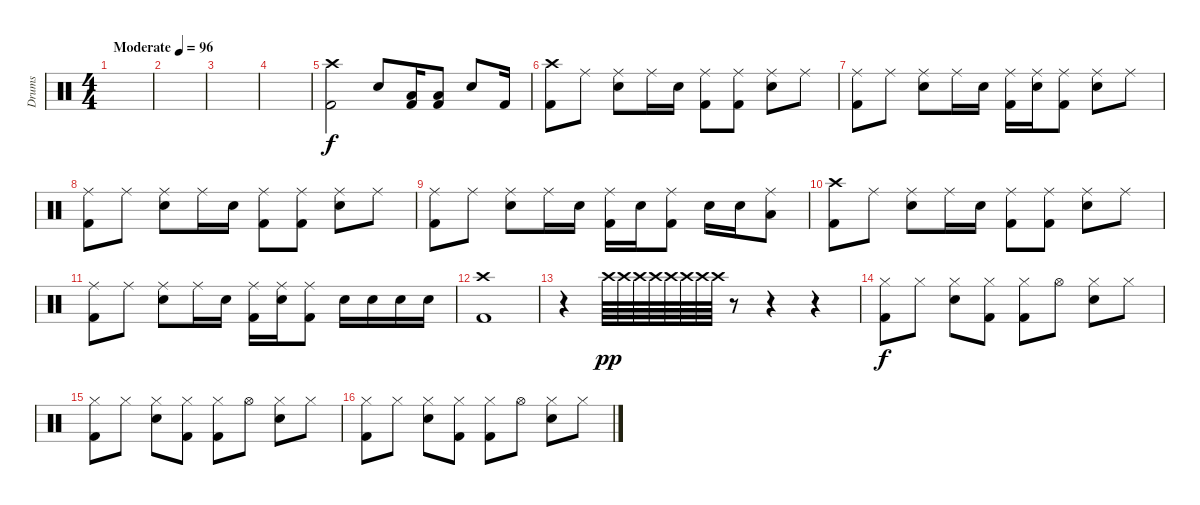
\track ("Drums" "Drums") {instrument percussion}
\staff {score}
\articulation defaults
\ts (4 4)
\tempo (96 "Moderate")
\clef neutral
\ks c
|
|
|
|
("Crash high (hit)" "Kick (hit) 2").2 "Electric Snare (hit)".8 ("Low Floor Tom (hit)" "Kick (hit) 2").16 ("Low Floor Tom (hit)" "Kick (hit) 2").8 "Electric Snare (hit)".8 "Kick (hit) 2".16 |
("Crash high (hit)" "Kick (hit) 2").8 "Ride (middle)".8 ("Ride (middle)" "Electric Snare (hit)").8 "Ride (middle)".16 "Electric Snare (hit)".16 ("Ride (middle)" "Kick (hit) 2").8 ("Ride (middle)" "Kick (hit) 2").8 ("Ride (middle)" "Electric Snare (hit)").8 "Ride (middle)".8 |
("Ride (middle)" "Kick (hit) 2").8 "Ride (middle)".8 ("Ride (middle)" "Electric Snare (hit)").8 "Ride (middle)".16 "Electric Snare (hit)".16 ("Ride (middle)" "Kick (hit) 2").16 ("Ride (middle)" "Electric Snare (hit)").16 ("Ride (middle)" "Kick (hit) 2").8 ("Ride (middle)" "Electric Snare (hit)").8 "Ride (middle)".8 |
("Ride (middle)" "Kick (hit) 2").8 "Ride (middle)".8 ("Ride (middle)" "Electric Snare (hit)").8 "Ride (middle)".16 "Electric Snare (hit)".16 ("Ride (middle)" "Kick (hit) 2").8 ("Ride (middle)" "Kick (hit) 2").8 ("Ride (middle)" "Electric Snare (hit)").8 "Ride (middle)".8 |
("Ride (middle)" "Kick (hit) 2").8 "Ride (middle)".8 ("Ride (middle)" "Electric Snare (hit)").8 "Ride (middle)".16 "Electric Snare (hit)".16 ("Ride (middle)" "Kick (hit) 2").16 "Electric Snare (hit)".16 ("Ride (middle)" "Kick (hit) 2").8 "Electric Snare (hit)".16 "Electric Snare (hit)".16 ("Ride (middle)" "Low Floor Tom (hit)").8 |
("Crash high (hit)" "Kick (hit) 2").8 "Ride (middle)".8 ("Ride (middle)" "Electric Snare (hit)").8 "Ride (middle)".16 "Electric Snare (hit)".16 ("Ride (middle)" "Kick (hit) 2").8 ("Ride (middle)" "Kick (hit) 2").8 ("Ride (middle)" "Electric Snare (hit)").8 "Ride (middle)".8 |
("Ride (middle)" "Kick (hit) 2").8 "Ride (middle)".8 ("Ride (middle)" "Electric Snare (hit)").8 "Ride (middle)".16 "Electric Snare (hit)".16 ("Ride (middle)" "Kick (hit) 2").16 ("Ride (middle)" "Electric Snare (hit)").16 ("Ride (middle)" "Kick (hit) 2").8 "Electric Snare (hit)".16 "Electric Snare (hit)".16 "Electric Snare (hit)".16 "Electric Snare (hit)".16 |
("Crash high (hit)" "Kick (hit) 2").1 |
r.4 "Crash high (hit)".64{dy pp} "Crash high (hit)".64 "Crash high (hit)".64 "Crash high (hit)".64 "Crash high (hit)".64 "Crash high (hit)".64 "Crash high (hit)".64 "Crash high (hit)".64 r.8 r.4 r.4 |
("Hi-Hat (closed)" "Kick (hit) 2").8{dy f} "Hi-Hat (closed)".8 ("Hi-Hat (closed)" "Electric Snare (hit)").8 ("Hi-Hat (closed)" "Kick (hit) 2").8 ("Hi-Hat (closed)" "Kick (hit) 2").8 "Hi-Hat (open)".8 ("Hi-Hat (closed)" "Electric Snare (hit)").8 "Hi-Hat (closed)".8 |
("Hi-Hat (closed)" "Kick (hit) 2").8 "Hi-Hat (closed)".8 ("Hi-Hat (closed)" "Electric Snare (hit)").8 ("Hi-Hat (closed)" "Kick (hit) 2").8 ("Hi-Hat (closed)" "Kick (hit) 2").8 "Hi-Hat (open)".8 ("Hi-Hat (closed)" "Electric Snare (hit)").8 "Hi-Hat (closed)".8 |
("Hi-Hat (closed)" "Kick (hit) 2").8 "Hi-Hat (closed)".8 ("Hi-Hat (closed)" "Electric Snare (hit)").8 ("Hi-Hat (closed)" "Kick (hit) 2").8 ("Hi-Hat (closed)" "Kick (hit) 2").8 "Hi-Hat (open)".8 ("Hi-Hat (closed)" "Electric Snare (hit)").8 "Hi-Hat (closed)".8
